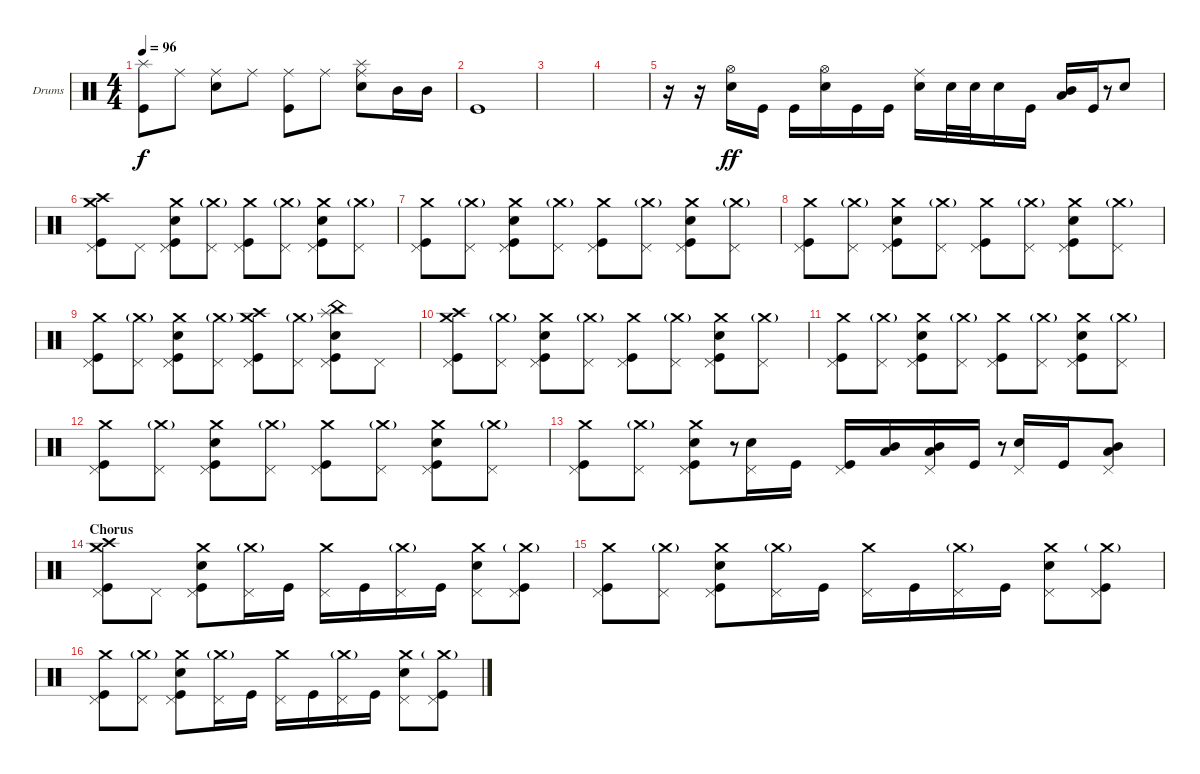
\defaultSystemsLayout 4
\bracketExtendMode groupsimilarinstruments
\firstSystemTrackNameOrientation horizontal
\otherSystemsTrackNameOrientation horizontal
\track ("Howard" "Drums") {instrument percussion}
\staff {score}
\articulation defaults
\ts (4 4)
\tempo 96
\clef neutral
\ks c
("Kick (hit)" "Splash (hit)").8{dy f} "Ride (middle)".8 ("Ride (middle)" "Snare (hit) 2").8 "Ride (middle)".8 ("Ride (middle)" "Kick (hit)").8 "Ride (middle)".8 ("Ride (middle)" "Snare (hit) 2" "Splash (hit)").8 "Mid Tom (hit)".16 "Mid Tom (hit)".16 |
"Kick (hit)".1 |
|
|
r.16 r.16 ("Snare (hit) 2" "Hi-Hat (open)").16{dy ff} "Kick (hit)".16 "Kick (hit)".16 ("Hi-Hat (open)" "Snare (hit) 2").16 "Kick (hit)".16 "Kick (hit)".16 ("Ride (middle)" "Snare (hit) 2").16 "Snare (hit) 2".32 "Snare (hit) 2".32 "Snare (hit) 2".16 "Kick (hit)".16 ("Low Tom (hit)" "Mid Tom (hit)").16 "Kick (hit)".16 r.8{gr} "Snare (hit) 2".8 |
("Crash high (hit)" "Pedal Hi-Hat (hit)" "Kick (hit)" "Crash medium (hit)").8 "Pedal Hi-Hat (hit)".8 ("Pedal Hi-Hat (hit)" "Snare (hit) 2" "Kick (hit)" "Crash medium (hit)").8 ("Pedal Hi-Hat (hit)" "Crash medium (hit)"{g}).8 ("Pedal Hi-Hat (hit)" "Kick (hit)" "Crash medium (hit)").8 ("Pedal Hi-Hat (hit)" "Crash medium (hit)"{g}).8 ("Pedal Hi-Hat (hit)" "Snare (hit) 2" "Kick (hit)" "Crash medium (hit)").8 ("Pedal Hi-Hat (hit)" "Crash medium (hit)"{g}).8 |
("Crash medium (hit)" "Pedal Hi-Hat (hit)" "Kick (hit)").8 ("Pedal Hi-Hat (hit)" "Crash medium (hit)"{g}).8 ("Pedal Hi-Hat (hit)" "Snare (hit) 2" "Kick (hit)" "Crash medium (hit)").8 ("Pedal Hi-Hat (hit)" "Crash medium (hit)"{g}).8 ("Pedal Hi-Hat (hit)" "Kick (hit)" "Crash medium (hit)").8 ("Pedal Hi-Hat (hit)" "Crash medium (hit)"{g}).8 ("Pedal Hi-Hat (hit)" "Snare (hit) 2" "Kick (hit)" "Crash medium (hit)").8 ("Pedal Hi-Hat (hit)" "Crash medium (hit)"{g}).8 |
("Crash medium (hit)" "Pedal Hi-Hat (hit)" "Kick (hit)").8 ("Pedal Hi-Hat (hit)" "Crash medium (hit)"{g}).8 ("Pedal Hi-Hat (hit)" "Snare (hit) 2" "Kick (hit)" "Crash medium (hit)").8 ("Pedal Hi-Hat (hit)" "Crash medium (hit)"{g}).8 ("Pedal Hi-Hat (hit)" "Kick (hit)" "Crash medium (hit)").8 ("Pedal Hi-Hat (hit)" "Crash medium (hit)"{g}).8 ("Pedal Hi-Hat (hit)" "Snare (hit) 2" "Kick (hit)" "Crash medium (hit)").8 ("Pedal Hi-Hat (hit)" "Crash medium (hit)"{g}).8 |
("Crash medium (hit)" "Pedal Hi-Hat (hit)" "Kick (hit)").8 ("Pedal Hi-Hat (hit)" "Crash medium (hit)"{g}).8 ("Pedal Hi-Hat (hit)" "Snare (hit) 2" "Kick (hit)" "Crash medium (hit)").8 ("Pedal Hi-Hat (hit)" "Crash medium (hit)"{g}).8 ("Pedal Hi-Hat (hit)" "Kick (hit)" "Crash high (hit)" "Crash medium (hit)").8 ("Pedal Hi-Hat (hit)" "Crash medium (hit)"{g}).8 ("Pedal Hi-Hat (hit)" "Snare (hit) 2" "Kick (hit)" "Splash (hit)" "China (hit)").8 "Pedal Hi-Hat (hit)".8 |
("Crash high (hit)" "Crash medium (hit)" "Pedal Hi-Hat (hit)" "Kick (hit)").8 ("Pedal Hi-Hat (hit)" "Crash medium (hit)"{g}).8 ("Pedal Hi-Hat (hit)" "Snare (hit) 2" "Kick (hit)" "Crash medium (hit)").8 ("Pedal Hi-Hat (hit)" "Crash medium (hit)"{g}).8 ("Pedal Hi-Hat (hit)" "Kick (hit)" "Crash medium (hit)").8 ("Pedal Hi-Hat (hit)" "Crash medium (hit)"{g}).8 ("Pedal Hi-Hat (hit)" "Snare (hit) 2" "Kick (hit)" "Crash medium (hit)").8 ("Pedal Hi-Hat (hit)" "Crash medium (hit)"{g}).8 |
("Crash medium (hit)" "Pedal Hi-Hat (hit)" "Kick (hit)").8 ("Pedal Hi-Hat (hit)" "Crash medium (hit)"{g}).8 ("Pedal Hi-Hat (hit)" "Snare (hit) 2" "Kick (hit)" "Crash medium (hit)").8 ("Pedal Hi-Hat (hit)" "Crash medium (hit)"{g}).8 ("Pedal Hi-Hat (hit)" "Kick (hit)" "Crash medium (hit)").8 ("Pedal Hi-Hat (hit)" "Crash medium (hit)"{g}).8 ("Pedal Hi-Hat (hit)" "Snare (hit) 2" "Kick (hit)" "Crash medium (hit)").8 ("Pedal Hi-Hat (hit)" "Crash medium (hit)"{g}).8 |
("Crash medium (hit)" "Pedal Hi-Hat (hit)" "Kick (hit)").8 ("Pedal Hi-Hat (hit)" "Crash medium (hit)"{g}).8 ("Pedal Hi-Hat (hit)" "Snare (hit) 2" "Kick (hit)" "Crash medium (hit)").8 ("Pedal Hi-Hat (hit)" "Crash medium (hit)"{g}).8 ("Pedal Hi-Hat (hit)" "Kick (hit)" "Crash medium (hit)").8 ("Pedal Hi-Hat (hit)" "Crash medium (hit)"{g}).8 ("Pedal Hi-Hat (hit)" "Snare (hit) 2" "Kick (hit)" "Crash medium (hit)").8 ("Pedal Hi-Hat (hit)" "Crash medium (hit)"{g}).8 |
("Crash medium (hit)" "Pedal Hi-Hat (hit)" "Kick (hit)").8 ("Pedal Hi-Hat (hit)" "Crash medium (hit)"{g}).8 ("Pedal Hi-Hat (hit)" "Snare (hit) 2" "Kick (hit)" "Crash medium (hit)").8 r.8{gr} ("Pedal Hi-Hat (hit)" "Snare (hit) 2").16 "Kick (hit)".16 ("Kick (hit)" "Pedal Hi-Hat (hit)").16 ("Low Tom (hit)" "Mid Tom (hit)").16 ("Low Tom (hit)" "Mid Tom (hit)" "Pedal Hi-Hat (hit)").16 "Kick (hit)".16 r.8{gr} ("Snare (hit) 2" "Pedal Hi-Hat (hit)").16 "Kick (hit)".16 ("Low Tom (hit)" "Mid Tom (hit)" "Pedal Hi-Hat (hit)").8 |
\section ("" "Chorus")
("Pedal Hi-Hat (hit)" "Kick (hit)" "Crash high (hit)" "Crash medium (hit)").8 "Pedal Hi-Hat (hit)".8 ("Pedal Hi-Hat (hit)" "Snare (hit) 2" "Kick (hit)" "Crash medium (hit)").8 ("Pedal Hi-Hat (hit)" "Crash medium (hit)"{g}).16 "Kick (hit)".16 ("Pedal Hi-Hat (hit)" "Crash medium (hit)").16 "Kick (hit)".16 ("Pedal Hi-Hat (hit)" "Crash medium (hit)"{g}).16 "Kick (hit)".16 ("Pedal Hi-Hat (hit)" "Snare (hit) 2" "Crash medium (hit)").8 ("Pedal Hi-Hat (hit)" "Crash medium (hit)"{g} "Kick (hit)").8 |
("Pedal Hi-Hat (hit)" "Kick (hit)" "Crash medium (hit)").8 ("Pedal Hi-Hat (hit)" "Crash medium (hit)"{g}).8 ("Pedal Hi-Hat (hit)" "Snare (hit) 2" "Kick (hit)" "Crash medium (hit)").8 ("Pedal Hi-Hat (hit)" "Crash medium (hit)"{g}).16 "Kick (hit)".16 ("Pedal Hi-Hat (hit)" "Crash medium (hit)").16 "Kick (hit)".16 ("Pedal Hi-Hat (hit)" "Crash medium (hit)"{g}).16 "Kick (hit)".16 ("Pedal Hi-Hat (hit)" "Snare (hit) 2" "Crash medium (hit)").8 ("Pedal Hi-Hat (hit)" "Crash medium (hit)"{g} "Kick (hit)").8 |
("Pedal Hi-Hat (hit)" "Kick (hit)" "Crash medium (hit)").8 ("Pedal Hi-Hat (hit)" "Crash medium (hit)"{g}).8 ("Pedal Hi-Hat (hit)" "Snare (hit) 2" "Kick (hit)" "Crash medium (hit)").8 ("Pedal Hi-Hat (hit)" "Crash medium (hit)"{g}).16 "Kick (hit)".16 ("Pedal Hi-Hat (hit)" "Crash medium (hit)").16 "Kick (hit)".16 ("Pedal Hi-Hat (hit)" "Crash medium (hit)"{g}).16 "Kick (hit)".16 ("Pedal Hi-Hat (hit)" "Snare (hit) 2" "Crash medium (hit)").8 ("Pedal Hi-Hat (hit)" "Crash medium (hit)"{g} "Kick (hit)").8
